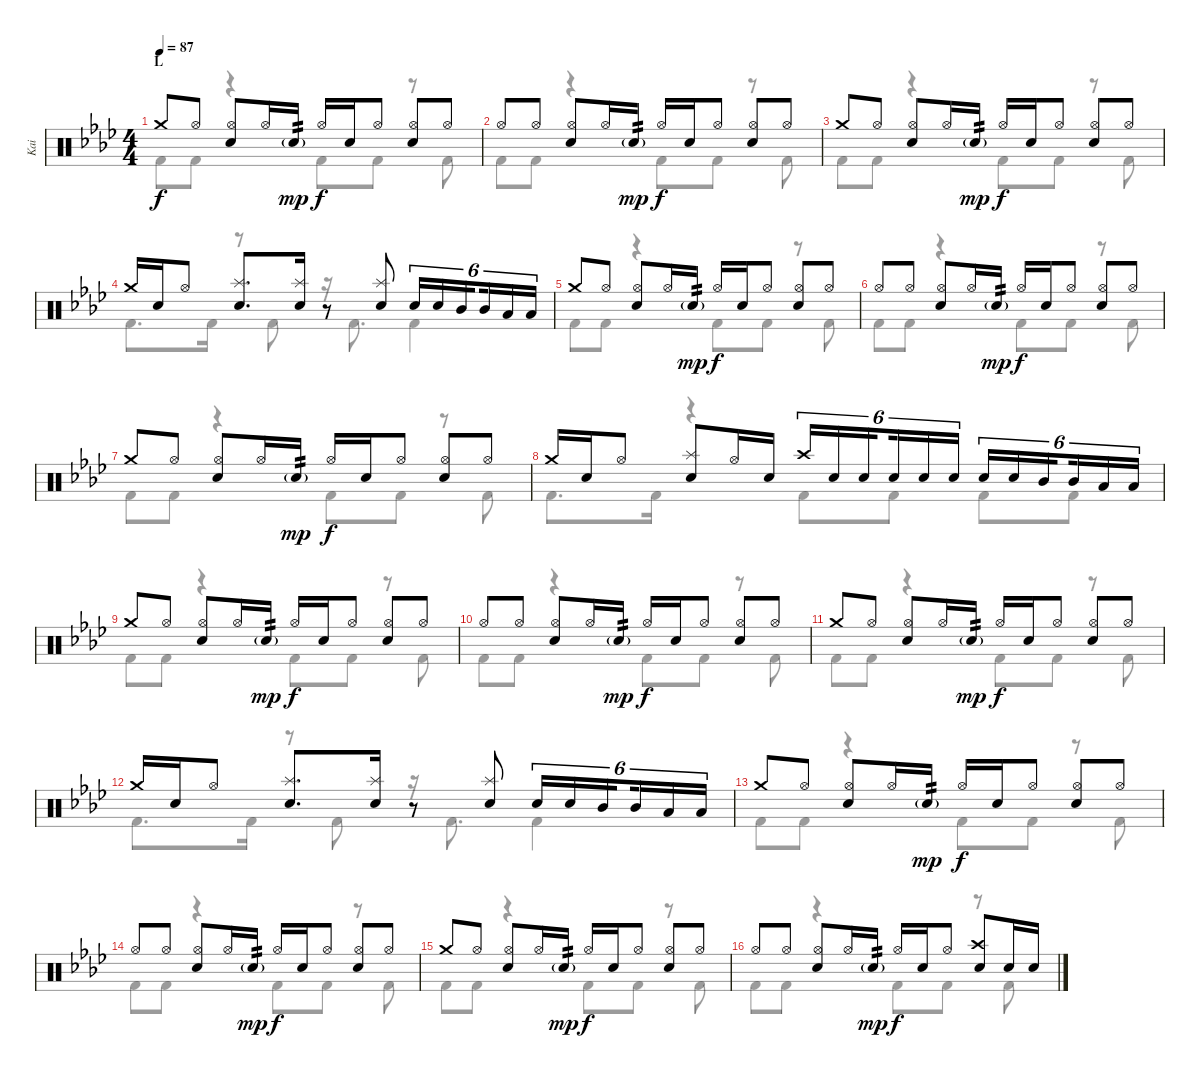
\track ("Kai" "Kai") {instrument percussion}
\staff {score}
\articulation defaults
\voice
\ts (4 4)
\section ("" "L")
\tempo 87
\clef neutral
\ks ab "Crash medium (hit)".8{dy f} "Hi-Hat (open)".8
("Hi-Hat (open)" "Snare (hit) 2").8 "Hi-Hat (open)".16 "Snare (hit) 2"{g}.16{tp 2 dy mp} "Hi-Hat (open)".16{dy f} "Snare (hit) 2".16 "Hi-Hat (open)".8 ("Hi-Hat (open)" "Snare (hit) 2").8 "Hi-Hat (open)".8 |
"Hi-Hat (open)".8 "Hi-Hat (open)".8 ("Hi-Hat (open)" "Snare (hit) 2").8 "Hi-Hat (open)".16 "Snare (hit) 2"{g}.16{tp 2 dy mp} "Hi-Hat (open)".16{dy f} "Snare (hit) 2".16 "Hi-Hat (open)".8 ("Hi-Hat (open)" "Snare (hit) 2").8 "Hi-Hat (open)".8 |
"Crash medium (hit)".8 "Hi-Hat (open)".8 ("Hi-Hat (open)" "Snare (hit) 2").8 "Hi-Hat (open)".16 "Snare (hit) 2"{g}.16{tp 2 dy mp} "Hi-Hat (open)".16{dy f} "Snare (hit) 2".16 "Hi-Hat (open)".8 ("Hi-Hat (open)" "Snare (hit) 2").8 "Hi-Hat (open)".8 |
"Crash medium (hit)".16 "Snare (hit) 2".16 "Hi-Hat (open)".8 ("Splash (hit)" "Snare (hit) 2").8{d} ("Splash (hit)" "Snare (hit) 2").16 r.8 ("Splash (hit)" "Snare (hit) 2").8 "Snare (hit) 2".16{tu (6 4)} "Snare (hit) 2".16{tu (6 4)} "Mid Tom (hit)".16{tu (6 4) beam splitsecondary} "Mid Tom (hit)".16{tu (6 4)} "Low Tom (hit)".16{tu (6 4)} "Low Tom (hit)".16{tu (6 4)} |
"Crash medium (hit)".8 "Hi-Hat (open)".8 ("Hi-Hat (open)" "Snare (hit) 2").8 "Hi-Hat (open)".16 "Snare (hit) 2"{g}.16{tp 2 dy mp} "Hi-Hat (open)".16{dy f} "Snare (hit) 2".16 "Hi-Hat (open)".8 ("Hi-Hat (open)" "Snare (hit) 2").8 "Hi-Hat (open)".8 |
"Hi-Hat (open)".8 "Hi-Hat (open)".8 ("Hi-Hat (open)" "Snare (hit) 2").8 "Hi-Hat (open)".16 "Snare (hit) 2"{g}.16{tp 2 dy mp} "Hi-Hat (open)".16{dy f} "Snare (hit) 2".16 "Hi-Hat (open)".8 ("Hi-Hat (open)" "Snare (hit) 2").8 "Hi-Hat (open)".8 |
"Crash medium (hit)".8 "Hi-Hat (open)".8 ("Hi-Hat (open)" "Snare (hit) 2").8 "Hi-Hat (open)".16 "Snare (hit) 2"{g}.16{tp 2 dy mp} "Hi-Hat (open)".16{dy f} "Snare (hit) 2".16 "Hi-Hat (open)".8 ("Hi-Hat (open)" "Snare (hit) 2").8 "Hi-Hat (open)".8 |
"Crash medium (hit)".16 "Snare (hit) 2".16 "Hi-Hat (open)".8 ("Splash (hit)" "Snare (hit) 2").8 "Hi-Hat (open)".16 "Snare (hit) 2".16 "Crash high (hit)".16{tu (6 4)} "Snare (hit) 2".16{tu (6 4)} "Snare (hit) 2".16{tu (6 4) beam splitsecondary} "Snare (hit) 2".16{tu (6 4)} "Snare (hit) 2".16{tu (6 4)} "Snare (hit) 2".16{tu (6 4)} "Snare (hit) 2".16{tu (6 4)} "Snare (hit) 2".16{tu (6 4)} "Mid Tom (hit)".16{tu (6 4) beam splitsecondary} "Mid Tom (hit)".16{tu (6 4)} "Low Tom (hit)".16{tu (6 4)} "Low Tom (hit)".16{tu (6 4)} |
"Crash medium (hit)".8 "Hi-Hat (open)".8 ("Hi-Hat (open)" "Snare (hit) 2").8 "Hi-Hat (open)".16 "Snare (hit) 2"{g}.16{tp 2 dy mp} "Hi-Hat (open)".16{dy f} "Snare (hit) 2".16 "Hi-Hat (open)".8 ("Hi-Hat (open)" "Snare (hit) 2").8 "Hi-Hat (open)".8 |
"Hi-Hat (open)".8 "Hi-Hat (open)".8 ("Hi-Hat (open)" "Snare (hit) 2").8 "Hi-Hat (open)".16 "Snare (hit) 2"{g}.16{tp 2 dy mp} "Hi-Hat (open)".16{dy f} "Snare (hit) 2".16 "Hi-Hat (open)".8 ("Hi-Hat (open)" "Snare (hit) 2").8 "Hi-Hat (open)".8 |
"Crash medium (hit)".8 "Hi-Hat (open)".8 ("Hi-Hat (open)" "Snare (hit) 2").8 "Hi-Hat (open)".16 "Snare (hit) 2"{g}.16{tp 2 dy mp} "Hi-Hat (open)".16{dy f} "Snare (hit) 2".16 "Hi-Hat (open)".8 ("Hi-Hat (open)" "Snare (hit) 2").8 "Hi-Hat (open)".8 |
"Crash medium (hit)".16 "Snare (hit) 2".16 "Hi-Hat (open)".8 ("Splash (hit)" "Snare (hit) 2").8{d} ("Splash (hit)" "Snare (hit) 2").16 r.8 ("Splash (hit)" "Snare (hit) 2").8 "Snare (hit) 2".16{tu (6 4)} "Snare (hit) 2".16{tu (6 4)} "Mid Tom (hit)".16{tu (6 4) beam splitsecondary} "Mid Tom (hit)".16{tu (6 4)} "Low Tom (hit)".16{tu (6 4)} "Low Tom (hit)".16{tu (6 4)} |
"Crash medium (hit)".8 "Hi-Hat (open)".8 ("Hi-Hat (open)" "Snare (hit) 2").8 "Hi-Hat (open)".16 "Snare (hit) 2"{g}.16{tp 2 dy mp} "Hi-Hat (open)".16{dy f} "Snare (hit) 2".16 "Hi-Hat (open)".8 ("Hi-Hat (open)" "Snare (hit) 2").8 "Hi-Hat (open)".8 |
"Hi-Hat (open)".8 "Hi-Hat (open)".8 ("Hi-Hat (open)" "Snare (hit) 2").8 "Hi-Hat (open)".16 "Snare (hit) 2"{g}.16{tp 2 dy mp} "Hi-Hat (open)".16{dy f} "Snare (hit) 2".16 "Hi-Hat (open)".8 ("Hi-Hat (open)" "Snare (hit) 2").8 "Hi-Hat (open)".8 |
"Crash medium (hit)".8 "Hi-Hat (open)".8 ("Hi-Hat (open)" "Snare (hit) 2").8 "Hi-Hat (open)".16 "Snare (hit) 2"{g}.16{tp 2 dy mp} "Hi-Hat (open)".16{dy f} "Snare (hit) 2".16 "Hi-Hat (open)".8 ("Hi-Hat (open)" "Snare (hit) 2").8 "Hi-Hat (open)".8 |
"Hi-Hat (open)".8 "Hi-Hat (open)".8 ("Hi-Hat (open)" "Snare (hit) 2").8 "Hi-Hat (open)".16 "Snare (hit) 2"{g}.16{tp 2 dy mp} "Hi-Hat (open)".16{dy f} "Snare (hit) 2".16 "Hi-Hat (open)".8 ("Crash high (hit)" "Snare (hit) 2").8 "Snare (hit) 2".16 "Snare (hit) 2".16
\voice
\clef neutral
\ottava regular
\simile none
\ks ab "Kick (hit) 2".8{dy f} "Kick (hit) 2".8
r.4 "Kick (hit) 2".8 "Kick (hit) 2".8 r.8 "Kick (hit) 2".8 |
"Kick (hit) 2".8 "Kick (hit) 2".8 r.4 "Kick (hit) 2".8 "Kick (hit) 2".8 r.8 "Kick (hit) 2".8 |
"Kick (hit) 2".8 "Kick (hit) 2".8 r.4 "Kick (hit) 2".8 "Kick (hit) 2".8 r.8 "Kick (hit) 2".8 |
"Kick (hit) 2".8{d} "Kick (hit) 2".16 r.8 "Kick (hit) 2".8 r.16 "Kick (hit) 2".8{d} "Kick (hit) 2".4 |
"Kick (hit) 2".8 "Kick (hit) 2".8 r.4 "Kick (hit) 2".8 "Kick (hit) 2".8 r.8 "Kick (hit) 2".8 |
"Kick (hit) 2".8 "Kick (hit) 2".8 r.4 "Kick (hit) 2".8 "Kick (hit) 2".8 r.8 "Kick (hit) 2".8 |
"Kick (hit) 2".8 "Kick (hit) 2".8 r.4 "Kick (hit) 2".8 "Kick (hit) 2".8 r.8 "Kick (hit) 2".8 |
"Kick (hit) 2".8{d} "Kick (hit) 2".16 r.4 "Kick (hit) 2".8 "Kick (hit) 2".8 "Kick (hit) 2".8 "Kick (hit) 2".8 |
"Kick (hit) 2".8 "Kick (hit) 2".8 r.4 "Kick (hit) 2".8 "Kick (hit) 2".8 r.8 "Kick (hit) 2".8 |
"Kick (hit) 2".8 "Kick (hit) 2".8 r.4 "Kick (hit) 2".8 "Kick (hit) 2".8 r.8 "Kick (hit) 2".8 |
"Kick (hit) 2".8 "Kick (hit) 2".8 r.4 "Kick (hit) 2".8 "Kick (hit) 2".8 r.8 "Kick (hit) 2".8 |
"Kick (hit) 2".8{d} "Kick (hit) 2".16 r.8 "Kick (hit) 2".8 r.16 "Kick (hit) 2".8{d} "Kick (hit) 2".4 |
"Kick (hit) 2".8 "Kick (hit) 2".8 r.4 "Kick (hit) 2".8 "Kick (hit) 2".8 r.8 "Kick (hit) 2".8 |
"Kick (hit) 2".8 "Kick (hit) 2".8 r.4 "Kick (hit) 2".8 "Kick (hit) 2".8 r.8 "Kick (hit) 2".8 |
"Kick (hit) 2".8 "Kick (hit) 2".8 r.4 "Kick (hit) 2".8 "Kick (hit) 2".8 r.8 "Kick (hit) 2".8 |
"Kick (hit) 2".8 "Kick (hit) 2".8 r.4 "Kick (hit) 2".8 "Kick (hit) 2".8 r.8 "Kick (hit) 2".8
